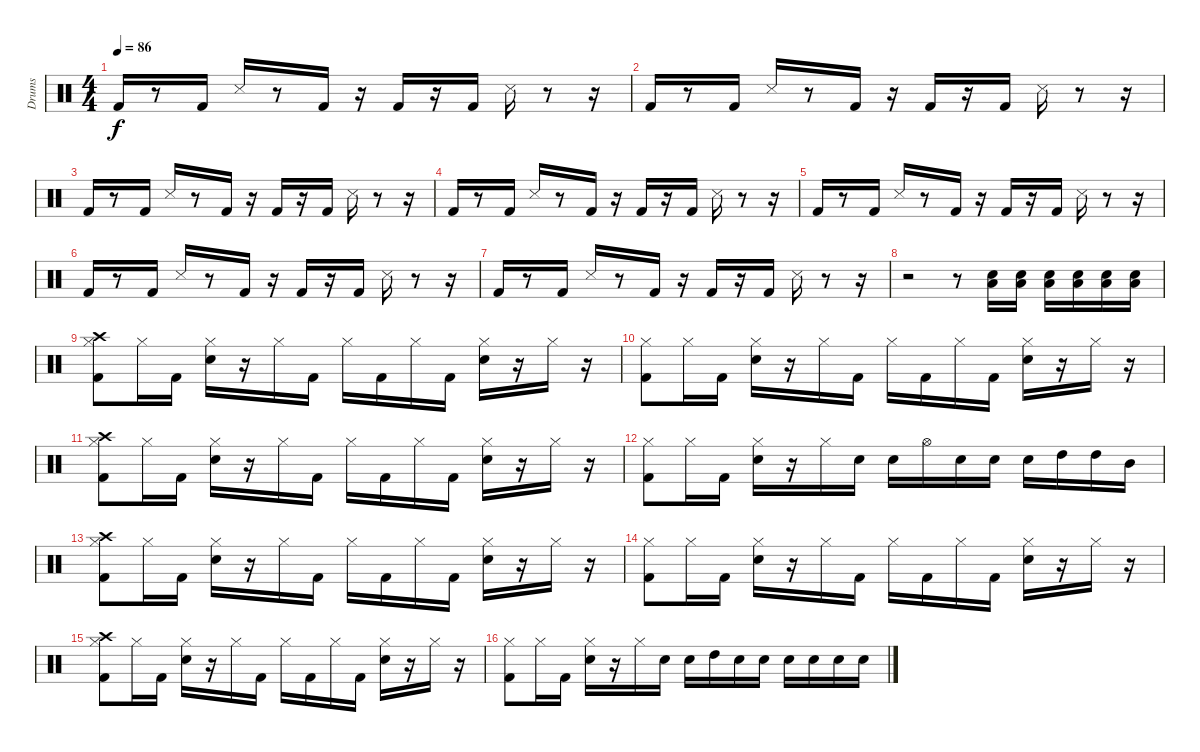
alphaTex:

\track ("Drums" "Drums") {instrument percussion}
\staff {score}
\articulation defaults
\ts (4 4)
\tempo 86
\clef neutral
\ks c "Kick (hit) 2".16{dy f}
r.8 "Kick (hit) 2".16 "Snare (side stick) 3".16 r.8 "Kick (hit) 2".16 r.16 "Kick (hit) 2".16 r.16 "Kick (hit) 2".16 "Snare (side stick) 3".16 r.8 r.16 |
"Kick (hit) 2".16 r.8 "Kick (hit) 2".16 "Snare (side stick) 3".16 r.8 "Kick (hit) 2".16 r.16 "Kick (hit) 2".16 r.16 "Kick (hit) 2".16 "Snare (side stick) 3".16 r.8 r.16 |
"Kick (hit) 2".16 r.8 "Kick (hit) 2".16 "Snare (side stick) 3".16 r.8 "Kick (hit) 2".16 r.16 "Kick (hit) 2".16 r.16 "Kick (hit) 2".16 "Snare (side stick) 3".16 r.8 r.16 |
"Kick (hit) 2".16 r.8 "Kick (hit) 2".16 "Snare (side stick) 3".16 r.8 "Kick (hit) 2".16 r.16 "Kick (hit) 2".16 r.16 "Kick (hit) 2".16 "Snare (side stick) 3".16 r.8 r.16 |
"Kick (hit) 2".16 r.8 "Kick (hit) 2".16 "Snare (side stick) 3".16 r.8 "Kick (hit) 2".16 r.16 "Kick (hit) 2".16 r.16 "Kick (hit) 2".16 "Snare (side stick) 3".16 r.8 r.16 |
"Kick (hit) 2".16 r.8 "Kick (hit) 2".16 "Snare (side stick) 3".16 r.8 "Kick (hit) 2".16 r.16 "Kick (hit) 2".16 r.16 "Kick (hit) 2".16 "Snare (side stick) 3".16 r.8 r.16 |
"Kick (hit) 2".16 r.8 "Kick (hit) 2".16 "Snare (side stick) 3".16 r.8 "Kick (hit) 2".16 r.16 "Kick (hit) 2".16 r.16 "Kick (hit) 2".16 "Snare (side stick) 3".16 r.8 r.16 |
r.2 r.8 ("Snare (hit) 2" "Low Floor Tom (hit)").16 ("Snare (hit) 2" "Low Floor Tom (hit)").16 ("Snare (hit) 2" "Low Floor Tom (hit)").16 ("Snare (hit) 2" "Low Floor Tom (hit)").16 ("Snare (hit) 2" "Low Floor Tom (hit)").16 ("Snare (hit) 2" "Low Floor Tom (hit)").16 |
("Kick (hit) 2" "Hi-Hat (closed)" "Crash high (hit)").8 "Hi-Hat (closed)".16 "Kick (hit) 2".16 ("Snare (hit) 2" "Hi-Hat (closed)").16 r.16 "Hi-Hat (closed)".16 "Kick (hit) 2".16 "Hi-Hat (closed)".16 "Kick (hit) 2".16 "Hi-Hat (closed)".16 "Kick (hit) 2".16 ("Snare (hit) 2" "Hi-Hat (closed)").16 r.16 "Hi-Hat (closed)".16 r.16 |
("Kick (hit) 2" "Hi-Hat (closed)").8 "Hi-Hat (closed)".16 "Kick (hit) 2".16 ("Snare (hit) 2" "Hi-Hat (closed)").16 r.16 "Hi-Hat (closed)".16 "Kick (hit) 2".16 "Hi-Hat (closed)".16 "Kick (hit) 2".16 "Hi-Hat (closed)".16 "Kick (hit) 2".16 ("Snare (hit) 2" "Hi-Hat (closed)").16 r.16 "Hi-Hat (closed)".16 r.16 |
("Kick (hit) 2" "Hi-Hat (closed)" "Crash high (hit)").8 "Hi-Hat (closed)".16 "Kick (hit) 2".16 ("Snare (hit) 2" "Hi-Hat (closed)").16 r.16 "Hi-Hat (closed)".16 "Kick (hit) 2".16 "Hi-Hat (closed)".16 "Kick (hit) 2".16 "Hi-Hat (closed)".16 "Kick (hit) 2".16 ("Snare (hit) 2" "Hi-Hat (closed)").16 r.16 "Hi-Hat (closed)".16 r.16 |
("Kick (hit) 2" "Hi-Hat (closed)").8 "Hi-Hat (closed)".16 "Kick (hit) 2".16 ("Snare (hit) 2" "Hi-Hat (closed)").16 r.16 "Hi-Hat (closed)".16 "Snare (hit) 2".16 "Snare (hit) 2".16 "Hi-Hat (open)".16 "Snare (hit) 2".16 "Snare (hit) 2".16 "Snare (hit) 2".16 "High Tom (hit)".16 "High Tom (hit)".16 "Mid Tom (hit)".16 |
("Kick (hit) 2" "Hi-Hat (closed)" "Crash high (hit)").8 "Hi-Hat (closed)".16 "Kick (hit) 2".16 ("Snare (hit) 2" "Hi-Hat (closed)").16 r.16 "Hi-Hat (closed)".16 "Kick (hit) 2".16 "Hi-Hat (closed)".16 "Kick (hit) 2".16 "Hi-Hat (closed)".16 "Kick (hit) 2".16 ("Snare (hit) 2" "Hi-Hat (closed)").16 r.16 "Hi-Hat (closed)".16 r.16 |
("Kick (hit) 2" "Hi-Hat (closed)").8 "Hi-Hat (closed)".16 "Kick (hit) 2".16 ("Snare (hit) 2" "Hi-Hat (closed)").16 r.16 "Hi-Hat (closed)".16 "Kick (hit) 2".16 "Hi-Hat (closed)".16 "Kick (hit) 2".16 "Hi-Hat (closed)".16 "Kick (hit) 2".16 ("Snare (hit) 2" "Hi-Hat (closed)").16 r.16 "Hi-Hat (closed)".16 r.16 |
("Kick (hit) 2" "Hi-Hat (closed)" "Crash high (hit)").8 "Hi-Hat (closed)".16 "Kick (hit) 2".16 ("Snare (hit) 2" "Hi-Hat (closed)").16 r.16 "Hi-Hat (closed)".16 "Kick (hit) 2".16 "Hi-Hat (closed)".16 "Kick (hit) 2".16 "Hi-Hat (closed)".16 "Kick (hit) 2".16 ("Snare (hit) 2" "Hi-Hat (closed)").16 r.16 "Hi-Hat (closed)".16 r.16 |
("Kick (hit) 2" "Hi-Hat (closed)").8 "Hi-Hat (closed)".16 "Kick (hit) 2".16 ("Snare (hit) 2" "Hi-Hat (closed)").16 r.16 "Hi-Hat (closed)".16 "Snare (hit) 2".16 "Snare (hit) 2".16 "High Tom (hit)".16 "Snare (hit) 2".16 "Snare (hit) 2".16 "Snare (hit) 2".16 "Snare (hit) 2".16 "Snare (hit) 2".16 "Snare (hit) 2".16
